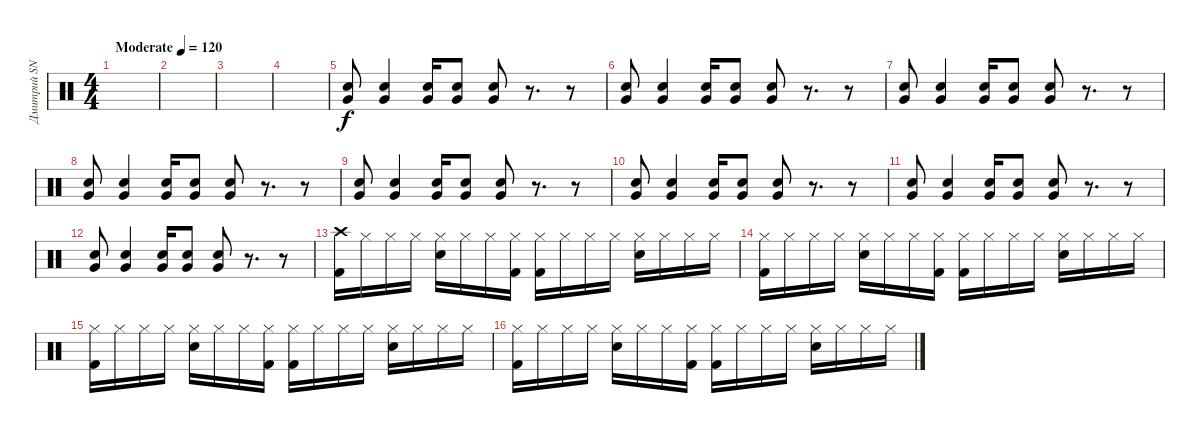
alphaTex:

\track ("Дмитрий SNAKE Хакимов" "Дмитрий SN") {instrument percussion}
\staff {score}
\articulation defaults
\ts (4 4)
\tempo (120 "Moderate")
\clef neutral
\ks c
|
|
|
|
("Snare (hit) 2" "Very Low Tom (hit)").8 ("Snare (hit) 2" "Very Low Tom (hit)").4 ("Snare (hit) 2" "Very Low Tom (hit)").16 ("Snare (hit) 2" "Very Low Tom (hit)").8 ("Snare (hit) 2" "Very Low Tom (hit)").8 r.8{d} r.8 |
("Snare (hit) 2" "Very Low Tom (hit)").8 ("Snare (hit) 2" "Very Low Tom (hit)").4 ("Snare (hit) 2" "Very Low Tom (hit)").16 ("Snare (hit) 2" "Very Low Tom (hit)").8 ("Snare (hit) 2" "Very Low Tom (hit)").8 r.8{d} r.8 |
("Snare (hit) 2" "Very Low Tom (hit)").8 ("Snare (hit) 2" "Very Low Tom (hit)").4 ("Snare (hit) 2" "Very Low Tom (hit)").16 ("Snare (hit) 2" "Very Low Tom (hit)").8 ("Snare (hit) 2" "Very Low Tom (hit)").8 r.8{d} r.8 |
("Snare (hit) 2" "Very Low Tom (hit)").8 ("Snare (hit) 2" "Very Low Tom (hit)").4 ("Snare (hit) 2" "Very Low Tom (hit)").16 ("Snare (hit) 2" "Very Low Tom (hit)").8 ("Snare (hit) 2" "Very Low Tom (hit)").8 r.8{d} r.8 |
("Snare (hit) 2" "Very Low Tom (hit)").8 ("Snare (hit) 2" "Very Low Tom (hit)").4 ("Snare (hit) 2" "Very Low Tom (hit)").16 ("Snare (hit) 2" "Very Low Tom (hit)").8 ("Snare (hit) 2" "Very Low Tom (hit)").8 r.8{d} r.8 |
("Snare (hit) 2" "Very Low Tom (hit)").8 ("Snare (hit) 2" "Very Low Tom (hit)").4 ("Snare (hit) 2" "Very Low Tom (hit)").16 ("Snare (hit) 2" "Very Low Tom (hit)").8 ("Snare (hit) 2" "Very Low Tom (hit)").8 r.8{d} r.8 |
("Snare (hit) 2" "Very Low Tom (hit)").8 ("Snare (hit) 2" "Very Low Tom (hit)").4 ("Snare (hit) 2" "Very Low Tom (hit)").16 ("Snare (hit) 2" "Very Low Tom (hit)").8 ("Snare (hit) 2" "Very Low Tom (hit)").8 r.8{d} r.8 |
("Snare (hit) 2" "Very Low Tom (hit)").8 ("Snare (hit) 2" "Very Low Tom (hit)").4 ("Snare (hit) 2" "Very Low Tom (hit)").16 ("Snare (hit) 2" "Very Low Tom (hit)").8 ("Snare (hit) 2" "Very Low Tom (hit)").8 r.8{d} r.8 |
("Crash high (hit)" "Kick (hit) 2").16 "Hi-Hat (closed)".16 "Hi-Hat (closed)".16 "Hi-Hat (closed)".16 ("Hi-Hat (closed)" "Snare (hit) 2").16 "Hi-Hat (closed)".16 "Hi-Hat (closed)".16 ("Hi-Hat (closed)" "Kick (hit) 2").16 ("Hi-Hat (closed)" "Kick (hit) 2").16 "Hi-Hat (closed)".16 "Hi-Hat (closed)".16 "Hi-Hat (closed)".16 ("Hi-Hat (closed)" "Snare (hit) 2").16 "Hi-Hat (closed)".16 "Hi-Hat (closed)".16 "Hi-Hat (closed)".16 |
("Hi-Hat (closed)" "Kick (hit) 2").16 "Hi-Hat (closed)".16 "Hi-Hat (closed)".16 "Hi-Hat (closed)".16 ("Hi-Hat (closed)" "Snare (hit) 2").16 "Hi-Hat (closed)".16 "Hi-Hat (closed)".16 ("Hi-Hat (closed)" "Kick (hit) 2").16 ("Hi-Hat (closed)" "Kick (hit) 2").16 "Hi-Hat (closed)".16 "Hi-Hat (closed)".16 "Hi-Hat (closed)".16 ("Hi-Hat (closed)" "Snare (hit) 2").16 "Hi-Hat (closed)".16 "Hi-Hat (closed)".16 "Hi-Hat (closed)".16 |
("Hi-Hat (closed)" "Kick (hit) 2").16 "Hi-Hat (closed)".16 "Hi-Hat (closed)".16 "Hi-Hat (closed)".16 ("Hi-Hat (closed)" "Snare (hit) 2").16 "Hi-Hat (closed)".16 "Hi-Hat (closed)".16 ("Hi-Hat (closed)" "Kick (hit) 2").16 ("Hi-Hat (closed)" "Kick (hit) 2").16 "Hi-Hat (closed)".16 "Hi-Hat (closed)".16 "Hi-Hat (closed)".16 ("Hi-Hat (closed)" "Snare (hit) 2").16 "Hi-Hat (closed)".16 "Hi-Hat (closed)".16 "Hi-Hat (closed)".16 |
("Hi-Hat (closed)" "Kick (hit) 2").16 "Hi-Hat (closed)".16 "Hi-Hat (closed)".16 "Hi-Hat (closed)".16 ("Hi-Hat (closed)" "Snare (hit) 2").16 "Hi-Hat (closed)".16 "Hi-Hat (closed)".16 ("Hi-Hat (closed)" "Kick (hit) 2").16 ("Hi-Hat (closed)" "Kick (hit) 2").16 "Hi-Hat (closed)".16 "Hi-Hat (closed)".16 "Hi-Hat (closed)".16 ("Hi-Hat (closed)" "Snare (hit) 2").16 "Hi-Hat (closed)".16 "Hi-Hat (closed)".16 "Hi-Hat (closed)".16
